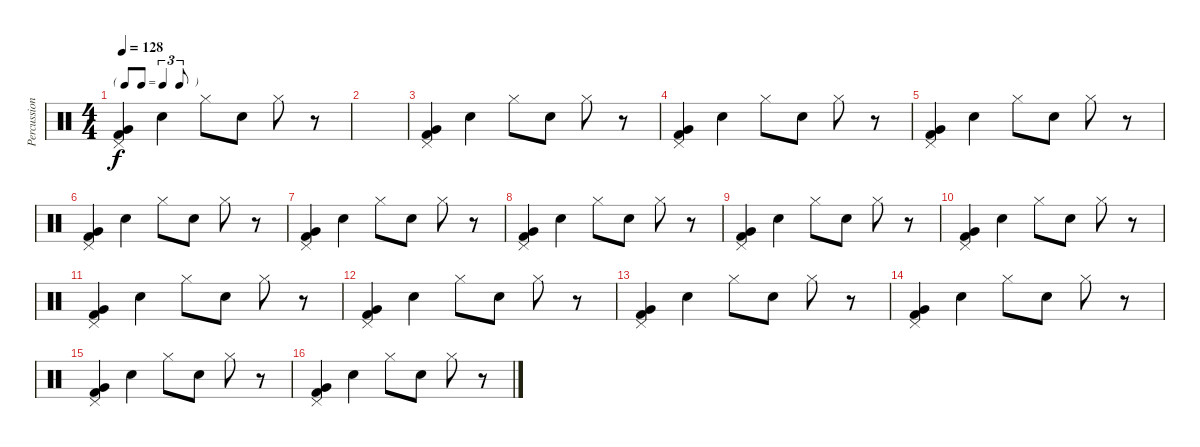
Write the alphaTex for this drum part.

\track ("Percussions" "Percussion") {instrument percussion}
\staff {score}
\articulation defaults
\ts (4 4)
\tf triplet8th
\tempo 128
\clef neutral
\ks c
("Kick (hit) 2" "Pedal Hi-Hat (hit)" "Very Low Tom (hit)").4{dy f} "Electric Snare (hit)".4 "Hi-Hat (closed)".8 "Snare (hit) 2".8 "Hi-Hat (closed)".8 r.8 |
|
("Kick (hit) 2" "Pedal Hi-Hat (hit)" "Very Low Tom (hit)").4 "Electric Snare (hit)".4 "Hi-Hat (closed)".8 "Snare (hit) 2".8 "Hi-Hat (closed)".8 r.8 |
("Kick (hit) 2" "Pedal Hi-Hat (hit)" "Very Low Tom (hit)").4 "Electric Snare (hit)".4 "Hi-Hat (closed)".8 "Snare (hit) 2".8 "Hi-Hat (closed)".8 r.8 |
("Kick (hit) 2" "Pedal Hi-Hat (hit)" "Very Low Tom (hit)").4 "Electric Snare (hit)".4 "Hi-Hat (closed)".8 "Snare (hit) 2".8 "Hi-Hat (closed)".8 r.8 |
("Kick (hit) 2" "Pedal Hi-Hat (hit)" "Very Low Tom (hit)").4 "Electric Snare (hit)".4 "Hi-Hat (closed)".8 "Snare (hit) 2".8 "Hi-Hat (closed)".8 r.8 |
("Kick (hit) 2" "Pedal Hi-Hat (hit)" "Very Low Tom (hit)").4 "Electric Snare (hit)".4 "Hi-Hat (closed)".8 "Snare (hit) 2".8 "Hi-Hat (closed)".8 r.8 |
("Kick (hit) 2" "Pedal Hi-Hat (hit)" "Very Low Tom (hit)").4 "Electric Snare (hit)".4 "Hi-Hat (closed)".8 "Snare (hit) 2".8 "Hi-Hat (closed)".8 r.8 |
("Kick (hit) 2" "Pedal Hi-Hat (hit)" "Very Low Tom (hit)").4 "Electric Snare (hit)".4 "Hi-Hat (closed)".8 "Snare (hit) 2".8 "Hi-Hat (closed)".8 r.8 |
("Kick (hit) 2" "Pedal Hi-Hat (hit)" "Very Low Tom (hit)").4 "Electric Snare (hit)".4 "Hi-Hat (closed)".8 "Snare (hit) 2".8 "Hi-Hat (closed)".8 r.8 |
("Kick (hit) 2" "Pedal Hi-Hat (hit)" "Very Low Tom (hit)").4 "Electric Snare (hit)".4 "Hi-Hat (closed)".8 "Snare (hit) 2".8 "Hi-Hat (closed)".8 r.8 |
("Kick (hit) 2" "Pedal Hi-Hat (hit)" "Very Low Tom (hit)").4 "Electric Snare (hit)".4 "Hi-Hat (closed)".8 "Snare (hit) 2".8 "Hi-Hat (closed)".8 r.8 |
("Kick (hit) 2" "Pedal Hi-Hat (hit)" "Very Low Tom (hit)").4 "Electric Snare (hit)".4 "Hi-Hat (closed)".8 "Snare (hit) 2".8 "Hi-Hat (closed)".8 r.8 |
("Kick (hit) 2" "Pedal Hi-Hat (hit)" "Very Low Tom (hit)").4 "Electric Snare (hit)".4 "Hi-Hat (closed)".8 "Snare (hit) 2".8 "Hi-Hat (closed)".8 r.8 |
("Kick (hit) 2" "Pedal Hi-Hat (hit)" "Very Low Tom (hit)").4 "Electric Snare (hit)".4 "Hi-Hat (closed)".8 "Snare (hit) 2".8 "Hi-Hat (closed)".8 r.8 |
("Kick (hit) 2" "Pedal Hi-Hat (hit)" "Very Low Tom (hit)").4 "Electric Snare (hit)".4 "Hi-Hat (closed)".8 "Snare (hit) 2".8 "Hi-Hat (closed)".8 r.8
